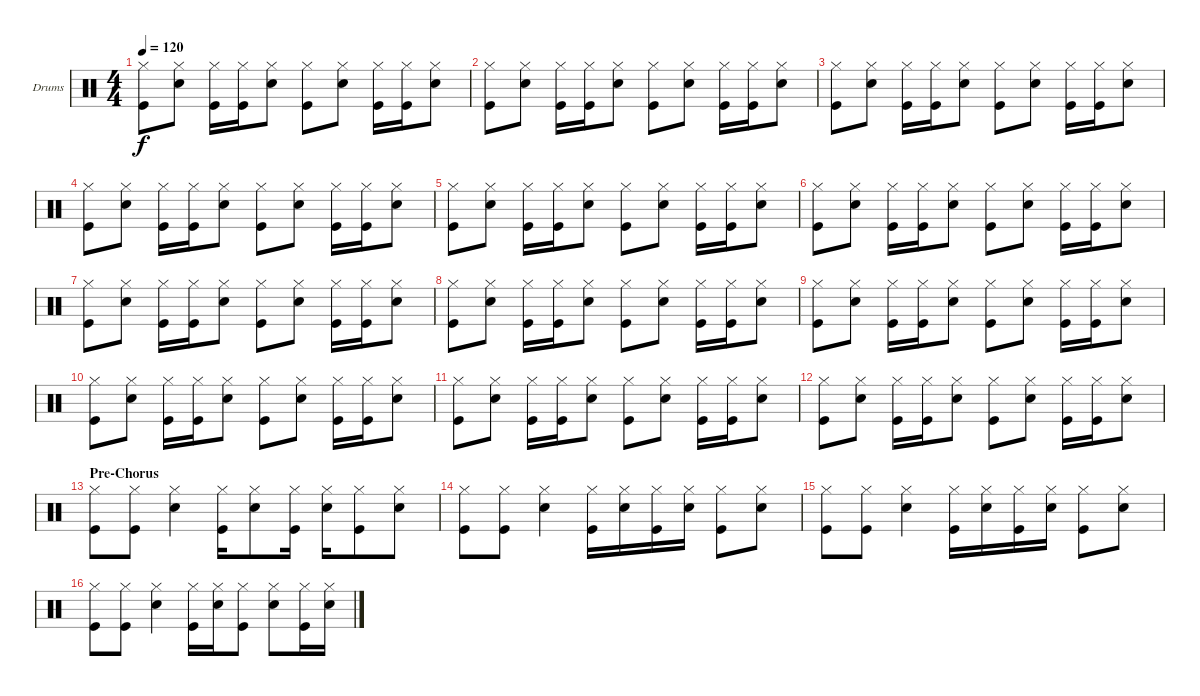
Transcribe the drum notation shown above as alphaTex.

\defaultSystemsLayout 4
\bracketExtendMode groupsimilarinstruments
\firstSystemTrackNameOrientation horizontal
\otherSystemsTrackNameOrientation horizontal
\track ("Drumkit" "Drums") {instrument percussion}
\staff {score}
\articulation defaults
\ts (4 4)
\tempo 120
\clef neutral
\ks c
("Hi-Hat (closed)" "Kick (hit)").8{dy f} ("Hi-Hat (closed)" "Snare (hit) 2").8 ("Hi-Hat (closed)" "Kick (hit)").16 ("Hi-Hat (closed)" "Kick (hit)").16 ("Hi-Hat (closed)" "Snare (hit) 2").8 ("Hi-Hat (closed)" "Kick (hit)").8 ("Hi-Hat (closed)" "Snare (hit) 2").8 ("Hi-Hat (closed)" "Kick (hit)").16 ("Hi-Hat (closed)" "Kick (hit)").16 ("Hi-Hat (closed)" "Snare (hit) 2").8 |
("Hi-Hat (closed)" "Kick (hit)").8 ("Hi-Hat (closed)" "Snare (hit) 2").8 ("Hi-Hat (closed)" "Kick (hit)").16 ("Hi-Hat (closed)" "Kick (hit)").16 ("Hi-Hat (closed)" "Snare (hit) 2").8 ("Hi-Hat (closed)" "Kick (hit)").8 ("Hi-Hat (closed)" "Snare (hit) 2").8 ("Hi-Hat (closed)" "Kick (hit)").16 ("Hi-Hat (closed)" "Kick (hit)").16 ("Hi-Hat (closed)" "Snare (hit) 2").8 |
("Hi-Hat (closed)" "Kick (hit)").8 ("Hi-Hat (closed)" "Snare (hit) 2").8 ("Hi-Hat (closed)" "Kick (hit)").16 ("Hi-Hat (closed)" "Kick (hit)").16 ("Hi-Hat (closed)" "Snare (hit) 2").8 ("Hi-Hat (closed)" "Kick (hit)").8 ("Hi-Hat (closed)" "Snare (hit) 2").8 ("Hi-Hat (closed)" "Kick (hit)").16 ("Hi-Hat (closed)" "Kick (hit)").16 ("Hi-Hat (closed)" "Snare (hit) 2").8 |
("Hi-Hat (closed)" "Kick (hit)").8 ("Hi-Hat (closed)" "Snare (hit) 2").8 ("Hi-Hat (closed)" "Kick (hit)").16 ("Hi-Hat (closed)" "Kick (hit)").16 ("Hi-Hat (closed)" "Snare (hit) 2").8 ("Hi-Hat (closed)" "Kick (hit)").8 ("Hi-Hat (closed)" "Snare (hit) 2").8 ("Hi-Hat (closed)" "Kick (hit)").16 ("Hi-Hat (closed)" "Kick (hit)").16 ("Hi-Hat (closed)" "Snare (hit) 2").8 |
("Hi-Hat (closed)" "Kick (hit)").8 ("Hi-Hat (closed)" "Snare (hit) 2").8 ("Hi-Hat (closed)" "Kick (hit)").16 ("Hi-Hat (closed)" "Kick (hit)").16 ("Hi-Hat (closed)" "Snare (hit) 2").8 ("Hi-Hat (closed)" "Kick (hit)").8 ("Hi-Hat (closed)" "Snare (hit) 2").8 ("Hi-Hat (closed)" "Kick (hit)").16 ("Hi-Hat (closed)" "Kick (hit)").16 ("Hi-Hat (closed)" "Snare (hit) 2").8 |
("Hi-Hat (closed)" "Kick (hit)").8 ("Hi-Hat (closed)" "Snare (hit) 2").8 ("Hi-Hat (closed)" "Kick (hit)").16 ("Hi-Hat (closed)" "Kick (hit)").16 ("Hi-Hat (closed)" "Snare (hit) 2").8 ("Hi-Hat (closed)" "Kick (hit)").8 ("Hi-Hat (closed)" "Snare (hit) 2").8 ("Hi-Hat (closed)" "Kick (hit)").16 ("Hi-Hat (closed)" "Kick (hit)").16 ("Hi-Hat (closed)" "Snare (hit) 2").8 |
("Hi-Hat (closed)" "Kick (hit)").8 ("Hi-Hat (closed)" "Snare (hit) 2").8 ("Hi-Hat (closed)" "Kick (hit)").16 ("Hi-Hat (closed)" "Kick (hit)").16 ("Hi-Hat (closed)" "Snare (hit) 2").8 ("Hi-Hat (closed)" "Kick (hit)").8 ("Hi-Hat (closed)" "Snare (hit) 2").8 ("Hi-Hat (closed)" "Kick (hit)").16 ("Hi-Hat (closed)" "Kick (hit)").16 ("Hi-Hat (closed)" "Snare (hit) 2").8 |
("Hi-Hat (closed)" "Kick (hit)").8 ("Hi-Hat (closed)" "Snare (hit) 2").8 ("Hi-Hat (closed)" "Kick (hit)").16 ("Hi-Hat (closed)" "Kick (hit)").16 ("Hi-Hat (closed)" "Snare (hit) 2").8 ("Hi-Hat (closed)" "Kick (hit)").8 ("Hi-Hat (closed)" "Snare (hit) 2").8 ("Hi-Hat (closed)" "Kick (hit)").16 ("Hi-Hat (closed)" "Kick (hit)").16 ("Hi-Hat (closed)" "Snare (hit) 2").8 |
("Hi-Hat (closed)" "Kick (hit)").8 ("Hi-Hat (closed)" "Snare (hit) 2").8 ("Hi-Hat (closed)" "Kick (hit)").16 ("Hi-Hat (closed)" "Kick (hit)").16 ("Hi-Hat (closed)" "Snare (hit) 2").8 ("Hi-Hat (closed)" "Kick (hit)").8 ("Hi-Hat (closed)" "Snare (hit) 2").8 ("Hi-Hat (closed)" "Kick (hit)").16 ("Hi-Hat (closed)" "Kick (hit)").16 ("Hi-Hat (closed)" "Snare (hit) 2").8 |
("Hi-Hat (closed)" "Kick (hit)").8 ("Hi-Hat (closed)" "Snare (hit) 2").8 ("Hi-Hat (closed)" "Kick (hit)").16 ("Hi-Hat (closed)" "Kick (hit)").16 ("Hi-Hat (closed)" "Snare (hit) 2").8 ("Hi-Hat (closed)" "Kick (hit)").8 ("Hi-Hat (closed)" "Snare (hit) 2").8 ("Hi-Hat (closed)" "Kick (hit)").16 ("Hi-Hat (closed)" "Kick (hit)").16 ("Hi-Hat (closed)" "Snare (hit) 2").8 |
("Hi-Hat (closed)" "Kick (hit)").8 ("Hi-Hat (closed)" "Snare (hit) 2").8 ("Hi-Hat (closed)" "Kick (hit)").16 ("Hi-Hat (closed)" "Kick (hit)").16 ("Hi-Hat (closed)" "Snare (hit) 2").8 ("Hi-Hat (closed)" "Kick (hit)").8 ("Hi-Hat (closed)" "Snare (hit) 2").8 ("Hi-Hat (closed)" "Kick (hit)").16 ("Hi-Hat (closed)" "Kick (hit)").16 ("Hi-Hat (closed)" "Snare (hit) 2").8 |
("Hi-Hat (closed)" "Kick (hit)").8 ("Hi-Hat (closed)" "Snare (hit) 2").8 ("Hi-Hat (closed)" "Kick (hit)").16 ("Hi-Hat (closed)" "Kick (hit)").16 ("Hi-Hat (closed)" "Snare (hit) 2").8 ("Hi-Hat (closed)" "Kick (hit)").8 ("Hi-Hat (closed)" "Snare (hit) 2").8 ("Hi-Hat (closed)" "Kick (hit)").16 ("Hi-Hat (closed)" "Kick (hit)").16 ("Hi-Hat (closed)" "Snare (hit) 2").8 |
\section ("" "Pre-Chorus")
("Hi-Hat (closed)" "Kick (hit)").8 ("Hi-Hat (closed)" "Kick (hit)").8 ("Hi-Hat (closed)" "Snare (hit) 2").4 ("Hi-Hat (closed)" "Kick (hit)").16 ("Hi-Hat (closed)" "Snare (hit) 2").8 ("Hi-Hat (closed)" "Kick (hit)").16 ("Hi-Hat (closed)" "Snare (hit) 2").16 ("Hi-Hat (closed)" "Kick (hit)").8 ("Hi-Hat (closed)" "Snare (hit) 2").8 |
("Hi-Hat (closed)" "Kick (hit)").8 ("Hi-Hat (closed)" "Kick (hit)").8 ("Hi-Hat (closed)" "Snare (hit) 2").4 ("Hi-Hat (closed)" "Kick (hit)").16 ("Hi-Hat (closed)" "Snare (hit) 2").16 ("Hi-Hat (closed)" "Kick (hit)").16 ("Hi-Hat (closed)" "Snare (hit) 2").16 ("Hi-Hat (closed)" "Kick (hit)").8 ("Hi-Hat (closed)" "Snare (hit) 2").8 |
("Hi-Hat (closed)" "Kick (hit)").8 ("Hi-Hat (closed)" "Kick (hit)").8 ("Hi-Hat (closed)" "Snare (hit) 2").4 ("Hi-Hat (closed)" "Kick (hit)").16 ("Hi-Hat (closed)" "Snare (hit) 2").16 ("Hi-Hat (closed)" "Kick (hit)").16 ("Hi-Hat (closed)" "Snare (hit) 2").16 ("Hi-Hat (closed)" "Kick (hit)").8 ("Hi-Hat (closed)" "Snare (hit) 2").8 |
("Hi-Hat (closed)" "Kick (hit)").8 ("Hi-Hat (closed)" "Kick (hit)").8 ("Hi-Hat (closed)" "Snare (hit) 2").4 ("Hi-Hat (closed)" "Kick (hit)").16 ("Hi-Hat (closed)" "Snare (hit) 2").16 ("Hi-Hat (closed)" "Kick (hit)").8 ("Hi-Hat (closed)" "Snare (hit) 2").8 ("Hi-Hat (closed)" "Kick (hit)").16 ("Hi-Hat (closed)" "Snare (hit) 2").16
